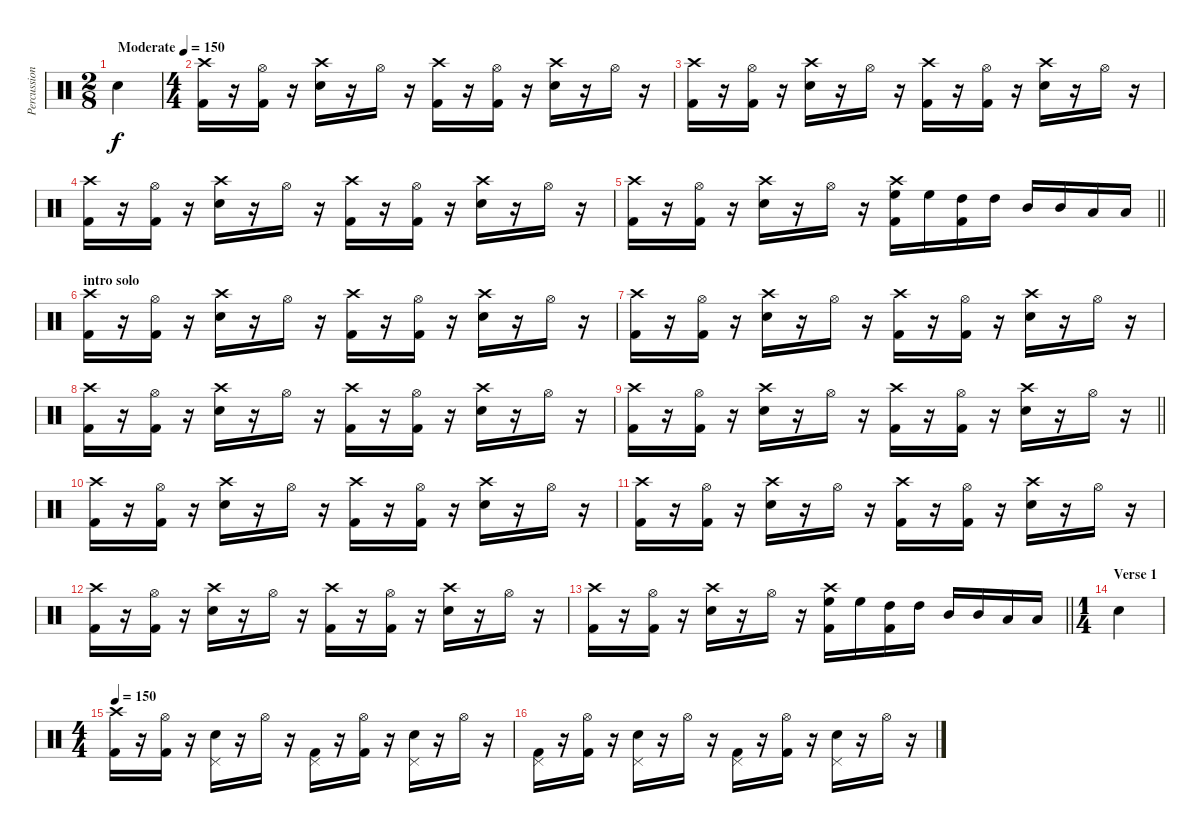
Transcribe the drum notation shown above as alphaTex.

\track ("Percussion" "Percussion") {instrument percussion}
\staff {score}
\articulation defaults
\ts (2 8)
\tempo (150 "Moderate")
\clef neutral
\ks c "Snare (hit) 2".4{dy f}
|
\ts (4 4)
("Crash high (hit)" "Kick (hit) 2").16 r.16 ("Hi-Hat (open)" "Kick (hit) 2").16 r.16 ("Crash high (hit)" "Snare (hit) 2").16 r.16 "Hi-Hat (open)".16 r.16 ("Crash high (hit)" "Kick (hit) 2").16 r.16 ("Hi-Hat (open)" "Kick (hit) 2").16 r.16 ("Crash high (hit)" "Snare (hit) 2").16 r.16 "Hi-Hat (open)".16 r.16 |
("Crash high (hit)" "Kick (hit) 2").16 r.16 ("Hi-Hat (open)" "Kick (hit) 2").16 r.16 ("Crash high (hit)" "Snare (hit) 2").16 r.16 "Hi-Hat (open)".16 r.16 ("Crash high (hit)" "Kick (hit) 2").16 r.16 ("Hi-Hat (open)" "Kick (hit) 2").16 r.16 ("Crash high (hit)" "Snare (hit) 2").16 r.16 "Hi-Hat (open)".16 r.16 |
("Crash high (hit)" "Kick (hit) 2").16 r.16 ("Hi-Hat (open)" "Kick (hit) 2").16 r.16 ("Crash high (hit)" "Snare (hit) 2").16 r.16 "Hi-Hat (open)".16 r.16 ("Crash high (hit)" "Kick (hit) 2").16 r.16 ("Hi-Hat (open)" "Kick (hit) 2").16 r.16 ("Crash high (hit)" "Snare (hit) 2").16 r.16 "Hi-Hat (open)".16 r.16 |
\barLineRight lightlight
("Crash high (hit)" "Kick (hit) 2").16 r.16 ("Hi-Hat (open)" "Kick (hit) 2").16 r.16 ("Crash high (hit)" "Snare (hit) 2").16 r.16 "Hi-Hat (open)".16 r.16 ("Crash high (hit)" "High Floor Tom (hit)" "Kick (hit) 2").16 "High Floor Tom (hit)".16 ("High Tom (hit)" "Kick (hit) 2").16 "High Tom (hit)".16 "Mid Tom (hit)".16 "Mid Tom (hit)".16 "Low Tom (hit)".16 "Low Tom (hit)".16 |
\section ("" "intro solo")
("Crash high (hit)" "Kick (hit) 2").16 r.16 ("Hi-Hat (open)" "Kick (hit) 2").16 r.16 ("Crash high (hit)" "Snare (hit) 2").16 r.16 "Hi-Hat (open)".16 r.16 ("Crash high (hit)" "Kick (hit) 2").16 r.16 ("Hi-Hat (open)" "Kick (hit) 2").16 r.16 ("Crash high (hit)" "Snare (hit) 2").16 r.16 "Hi-Hat (open)".16 r.16 |
("Crash high (hit)" "Kick (hit) 2").16 r.16 ("Hi-Hat (open)" "Kick (hit) 2").16 r.16 ("Crash high (hit)" "Snare (hit) 2").16 r.16 "Hi-Hat (open)".16 r.16 ("Crash high (hit)" "Kick (hit) 2").16 r.16 ("Hi-Hat (open)" "Kick (hit) 2").16 r.16 ("Crash high (hit)" "Snare (hit) 2").16 r.16 "Hi-Hat (open)".16 r.16 |
("Crash high (hit)" "Kick (hit) 2").16 r.16 ("Hi-Hat (open)" "Kick (hit) 2").16 r.16 ("Crash high (hit)" "Snare (hit) 2").16 r.16 "Hi-Hat (open)".16 r.16 ("Crash high (hit)" "Kick (hit) 2").16 r.16 ("Hi-Hat (open)" "Kick (hit) 2").16 r.16 ("Crash high (hit)" "Snare (hit) 2").16 r.16 "Hi-Hat (open)".16 r.16 |
\barLineRight lightlight
("Crash high (hit)" "Kick (hit) 2").16 r.16 ("Hi-Hat (open)" "Kick (hit) 2").16 r.16 ("Crash high (hit)" "Snare (hit) 2").16 r.16 "Hi-Hat (open)".16 r.16 ("Crash high (hit)" "Kick (hit) 2").16 r.16 ("Hi-Hat (open)" "Kick (hit) 2").16 r.16 ("Crash high (hit)" "Snare (hit) 2").16 r.16 "Hi-Hat (open)".16 r.16 |
("Crash high (hit)" "Kick (hit) 2").16 r.16 ("Hi-Hat (open)" "Kick (hit) 2").16 r.16 ("Crash high (hit)" "Snare (hit) 2").16 r.16 "Hi-Hat (open)".16 r.16 ("Crash high (hit)" "Kick (hit) 2").16 r.16 ("Hi-Hat (open)" "Kick (hit) 2").16 r.16 ("Crash high (hit)" "Snare (hit) 2").16 r.16 "Hi-Hat (open)".16 r.16 |
("Crash high (hit)" "Kick (hit) 2").16 r.16 ("Hi-Hat (open)" "Kick (hit) 2").16 r.16 ("Crash high (hit)" "Snare (hit) 2").16 r.16 "Hi-Hat (open)".16 r.16 ("Crash high (hit)" "Kick (hit) 2").16 r.16 ("Hi-Hat (open)" "Kick (hit) 2").16 r.16 ("Crash high (hit)" "Snare (hit) 2").16 r.16 "Hi-Hat (open)".16 r.16 |
("Crash high (hit)" "Kick (hit) 2").16 r.16 ("Hi-Hat (open)" "Kick (hit) 2").16 r.16 ("Crash high (hit)" "Snare (hit) 2").16 r.16 "Hi-Hat (open)".16 r.16 ("Crash high (hit)" "Kick (hit) 2").16 r.16 ("Hi-Hat (open)" "Kick (hit) 2").16 r.16 ("Crash high (hit)" "Snare (hit) 2").16 r.16 "Hi-Hat (open)".16 r.16 |
\barLineRight lightlight
("Crash high (hit)" "Kick (hit) 2").16 r.16 ("Hi-Hat (open)" "Kick (hit) 2").16 r.16 ("Crash high (hit)" "Snare (hit) 2").16 r.16 "Hi-Hat (open)".16 r.16 ("Crash high (hit)" "High Floor Tom (hit)" "Kick (hit) 2").16 "High Floor Tom (hit)".16 ("High Tom (hit)" "Kick (hit) 2").16 "High Tom (hit)".16 "Mid Tom (hit)".16 "Mid Tom (hit)".16 "Low Tom (hit)".16 "Low Tom (hit)".16 |
\ts (1 4)
\section ("" "Verse 1")
"Snare (hit) 2".4 |
\ts (4 4)
\tempo 150
("Crash high (hit)" "Kick (hit) 2").16 r.16 ("Hi-Hat (open)" "Kick (hit) 2").16 r.16 ("Pedal Hi-Hat (hit)" "Snare (hit) 2").16 r.16 "Hi-Hat (open)".16 r.16 ("Pedal Hi-Hat (hit)" "Kick (hit) 2").16 r.16 ("Hi-Hat (open)" "Kick (hit) 2").16 r.16 ("Pedal Hi-Hat (hit)" "Snare (hit) 2").16 r.16 "Hi-Hat (open)".16 r.16 |
("Pedal Hi-Hat (hit)" "Kick (hit) 2").16 r.16 ("Hi-Hat (open)" "Kick (hit) 2").16 r.16 ("Pedal Hi-Hat (hit)" "Snare (hit) 2").16 r.16 "Hi-Hat (open)".16 r.16 ("Pedal Hi-Hat (hit)" "Kick (hit) 2").16 r.16 ("Hi-Hat (open)" "Kick (hit) 2").16 r.16 ("Pedal Hi-Hat (hit)" "Snare (hit) 2").16 r.16 "Hi-Hat (open)".16 r.16
